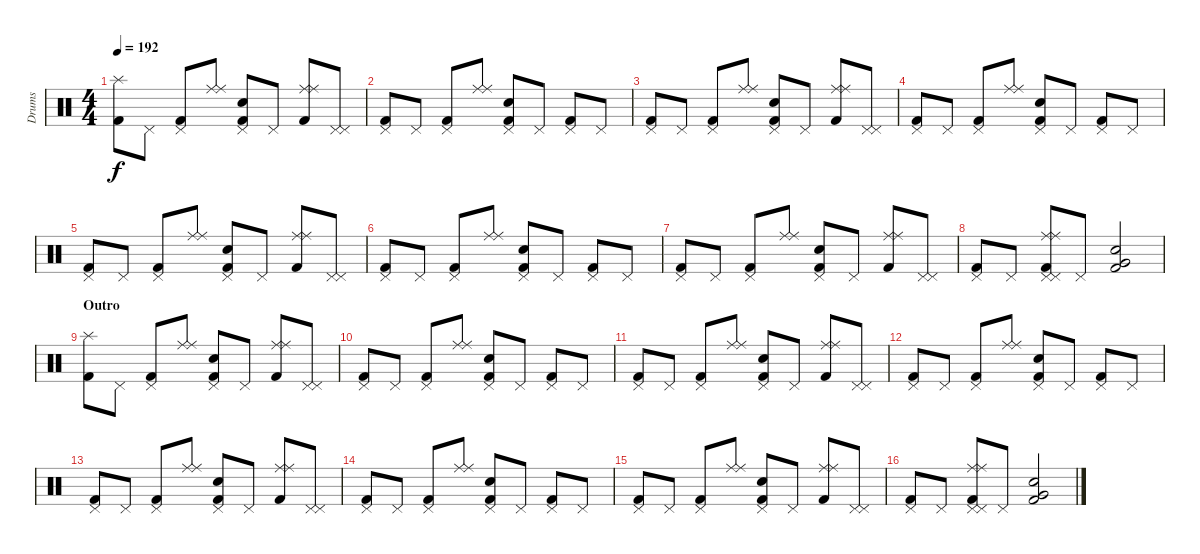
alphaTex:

\track ("Drums" "Drums") {instrument percussion}
\staff {score}
\articulation defaults
\ts (4 4)
\tempo 192
\clef neutral
\ks c
("Splash (hit)" "Kick (hit) 2").8{dy f} "Pedal Hi-Hat (hit)".8 ("Pedal Hi-Hat (hit)" "Kick (hit) 2").8 ("Ride (middle)" "Ride (middle)").8 ("Pedal Hi-Hat (hit)" "Electric Snare (hit)" "Kick (hit) 2").8 "Pedal Hi-Hat (hit)".8 ("Ride (middle)" "Ride (middle)" "Kick (hit) 2").8 ("Pedal Hi-Hat (hit)" "Pedal Hi-Hat (hit)").8 |
("Pedal Hi-Hat (hit)" "Kick (hit) 2").8 "Pedal Hi-Hat (hit)".8 ("Pedal Hi-Hat (hit)" "Kick (hit) 2").8 ("Ride (middle)" "Ride (middle)").8 ("Pedal Hi-Hat (hit)" "Electric Snare (hit)" "Kick (hit) 2").8 "Pedal Hi-Hat (hit)".8 ("Pedal Hi-Hat (hit)" "Kick (hit) 2").8 "Pedal Hi-Hat (hit)".8 |
("Pedal Hi-Hat (hit)" "Kick (hit) 2").8 "Pedal Hi-Hat (hit)".8 ("Pedal Hi-Hat (hit)" "Kick (hit) 2").8 ("Ride (middle)" "Ride (middle)").8 ("Pedal Hi-Hat (hit)" "Electric Snare (hit)" "Kick (hit) 2").8 "Pedal Hi-Hat (hit)".8 ("Ride (middle)" "Ride (middle)" "Kick (hit) 2").8 ("Pedal Hi-Hat (hit)" "Pedal Hi-Hat (hit)").8 |
("Pedal Hi-Hat (hit)" "Kick (hit) 2").8 "Pedal Hi-Hat (hit)".8 ("Pedal Hi-Hat (hit)" "Kick (hit) 2").8 ("Ride (middle)" "Ride (middle)").8 ("Pedal Hi-Hat (hit)" "Electric Snare (hit)" "Kick (hit) 2").8 "Pedal Hi-Hat (hit)".8 ("Pedal Hi-Hat (hit)" "Kick (hit) 2").8 "Pedal Hi-Hat (hit)".8 |
("Pedal Hi-Hat (hit)" "Kick (hit) 2").8 "Pedal Hi-Hat (hit)".8 ("Pedal Hi-Hat (hit)" "Kick (hit) 2").8 ("Ride (middle)" "Ride (middle)").8 ("Pedal Hi-Hat (hit)" "Electric Snare (hit)" "Kick (hit) 2").8 "Pedal Hi-Hat (hit)".8 ("Ride (middle)" "Ride (middle)" "Kick (hit) 2").8 ("Pedal Hi-Hat (hit)" "Pedal Hi-Hat (hit)").8 |
("Pedal Hi-Hat (hit)" "Kick (hit) 2").8 "Pedal Hi-Hat (hit)".8 ("Pedal Hi-Hat (hit)" "Kick (hit) 2").8 ("Ride (middle)" "Ride (middle)").8 ("Pedal Hi-Hat (hit)" "Electric Snare (hit)" "Kick (hit) 2").8 "Pedal Hi-Hat (hit)".8 ("Pedal Hi-Hat (hit)" "Kick (hit) 2").8 "Pedal Hi-Hat (hit)".8 |
("Pedal Hi-Hat (hit)" "Kick (hit) 2").8 "Pedal Hi-Hat (hit)".8 ("Pedal Hi-Hat (hit)" "Kick (hit) 2").8 ("Ride (middle)" "Ride (middle)").8 ("Pedal Hi-Hat (hit)" "Electric Snare (hit)" "Kick (hit) 2").8 "Pedal Hi-Hat (hit)".8 ("Ride (middle)" "Ride (middle)" "Kick (hit) 2").8 ("Pedal Hi-Hat (hit)" "Pedal Hi-Hat (hit)").8 |
("Pedal Hi-Hat (hit)" "Kick (hit) 2").8 "Pedal Hi-Hat (hit)".8 ("Ride (middle)" "Ride (middle)" "Pedal Hi-Hat (hit)" "Pedal Hi-Hat (hit)" "Kick (hit) 2").8 "Pedal Hi-Hat (hit)".8 ("Very Low Tom (hit)" "Electric Snare (hit)" "Kick (hit) 2").2 |
\section ("" "Outro")
("Splash (hit)" "Kick (hit) 2").8 "Pedal Hi-Hat (hit)".8 ("Pedal Hi-Hat (hit)" "Kick (hit) 2").8 ("Ride (middle)" "Ride (middle)").8 ("Pedal Hi-Hat (hit)" "Electric Snare (hit)" "Kick (hit) 2").8 "Pedal Hi-Hat (hit)".8 ("Ride (middle)" "Ride (middle)" "Kick (hit) 2").8 ("Pedal Hi-Hat (hit)" "Pedal Hi-Hat (hit)").8 |
("Pedal Hi-Hat (hit)" "Kick (hit) 2").8 "Pedal Hi-Hat (hit)".8 ("Pedal Hi-Hat (hit)" "Kick (hit) 2").8 ("Ride (middle)" "Ride (middle)").8 ("Pedal Hi-Hat (hit)" "Electric Snare (hit)" "Kick (hit) 2").8 "Pedal Hi-Hat (hit)".8 ("Pedal Hi-Hat (hit)" "Kick (hit) 2").8 "Pedal Hi-Hat (hit)".8 |
("Pedal Hi-Hat (hit)" "Kick (hit) 2").8 "Pedal Hi-Hat (hit)".8 ("Pedal Hi-Hat (hit)" "Kick (hit) 2").8 ("Ride (middle)" "Ride (middle)").8 ("Pedal Hi-Hat (hit)" "Electric Snare (hit)" "Kick (hit) 2").8 "Pedal Hi-Hat (hit)".8 ("Ride (middle)" "Ride (middle)" "Kick (hit) 2").8 ("Pedal Hi-Hat (hit)" "Pedal Hi-Hat (hit)").8 |
("Pedal Hi-Hat (hit)" "Kick (hit) 2").8 "Pedal Hi-Hat (hit)".8 ("Pedal Hi-Hat (hit)" "Kick (hit) 2").8 ("Ride (middle)" "Ride (middle)").8 ("Pedal Hi-Hat (hit)" "Electric Snare (hit)" "Kick (hit) 2").8 "Pedal Hi-Hat (hit)".8 ("Pedal Hi-Hat (hit)" "Kick (hit) 2").8 "Pedal Hi-Hat (hit)".8 |
("Pedal Hi-Hat (hit)" "Kick (hit) 2").8 "Pedal Hi-Hat (hit)".8 ("Pedal Hi-Hat (hit)" "Kick (hit) 2").8 ("Ride (middle)" "Ride (middle)").8 ("Pedal Hi-Hat (hit)" "Electric Snare (hit)" "Kick (hit) 2").8 "Pedal Hi-Hat (hit)".8 ("Ride (middle)" "Ride (middle)" "Kick (hit) 2").8 ("Pedal Hi-Hat (hit)" "Pedal Hi-Hat (hit)").8 |
("Pedal Hi-Hat (hit)" "Kick (hit) 2").8 "Pedal Hi-Hat (hit)".8 ("Pedal Hi-Hat (hit)" "Kick (hit) 2").8 ("Ride (middle)" "Ride (middle)").8 ("Pedal Hi-Hat (hit)" "Electric Snare (hit)" "Kick (hit) 2").8 "Pedal Hi-Hat (hit)".8 ("Pedal Hi-Hat (hit)" "Kick (hit) 2").8 "Pedal Hi-Hat (hit)".8 |
("Pedal Hi-Hat (hit)" "Kick (hit) 2").8 "Pedal Hi-Hat (hit)".8 ("Pedal Hi-Hat (hit)" "Kick (hit) 2").8 ("Ride (middle)" "Ride (middle)").8 ("Pedal Hi-Hat (hit)" "Electric Snare (hit)" "Kick (hit) 2").8 "Pedal Hi-Hat (hit)".8 ("Ride (middle)" "Ride (middle)" "Kick (hit) 2").8 ("Pedal Hi-Hat (hit)" "Pedal Hi-Hat (hit)").8 |
("Pedal Hi-Hat (hit)" "Kick (hit) 2").8 "Pedal Hi-Hat (hit)".8 ("Ride (middle)" "Ride (middle)" "Pedal Hi-Hat (hit)" "Pedal Hi-Hat (hit)" "Kick (hit) 2").8 "Pedal Hi-Hat (hit)".8 ("Very Low Tom (hit)" "Electric Snare (hit)" "Kick (hit) 2").2
